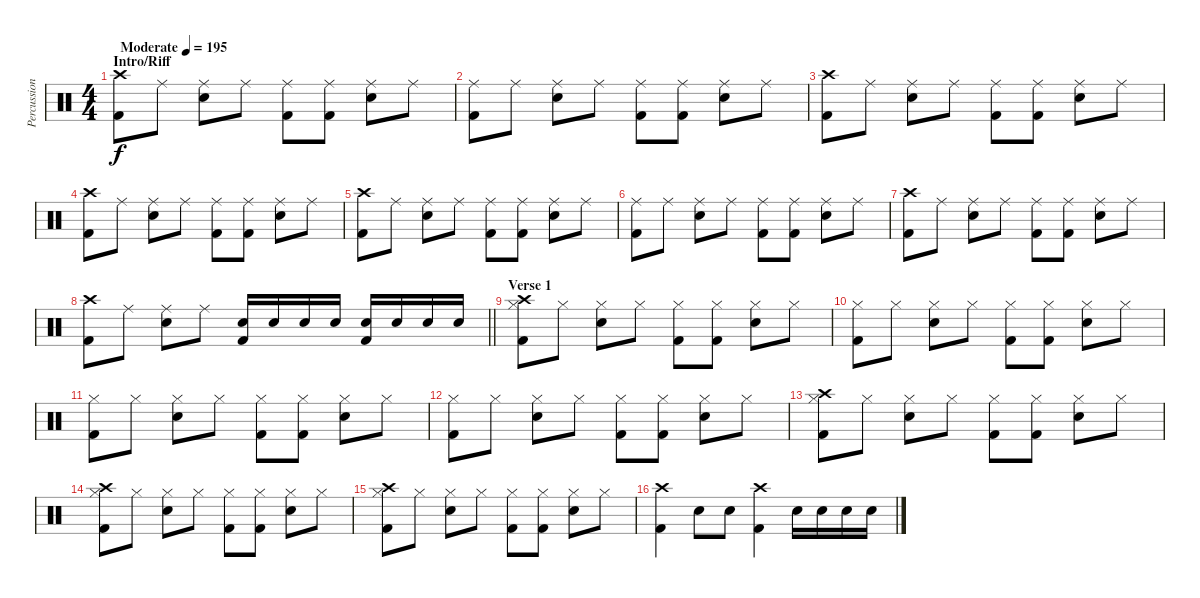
\track ("Percussion" "Percussion") {instrument percussion}
\staff {score}
\articulation defaults
\ts (4 4)
\section ("" "Intro/Riff")
\tempo (195 "Moderate")
\clef neutral
\ks c
("Crash high (hit)" "Kick (hit) 2").8{dy f} "Ride (middle)".8 ("Ride (middle)" "Electric Snare (hit)").8 "Ride (middle)".8 ("Ride (middle)" "Kick (hit) 2").8 ("Ride (middle)" "Kick (hit) 2").8 ("Ride (middle)" "Electric Snare (hit)").8 "Ride (middle)".8 |
("Ride (middle)" "Kick (hit) 2").8 "Ride (middle)".8 ("Ride (middle)" "Electric Snare (hit)").8 "Ride (middle)".8 ("Ride (middle)" "Kick (hit) 2").8 ("Ride (middle)" "Kick (hit) 2").8 ("Ride (middle)" "Electric Snare (hit)").8 "Ride (middle)".8 |
("Crash high (hit)" "Kick (hit) 2").8 "Ride (middle)".8 ("Ride (middle)" "Electric Snare (hit)").8 "Ride (middle)".8 ("Ride (middle)" "Kick (hit) 2").8 ("Ride (middle)" "Kick (hit) 2").8 ("Ride (middle)" "Electric Snare (hit)").8 "Ride (middle)".8 |
("Crash high (hit)" "Kick (hit) 2").8 "Ride (middle)".8 ("Ride (middle)" "Electric Snare (hit)").8 "Ride (middle)".8 ("Ride (middle)" "Kick (hit) 2").8 ("Ride (middle)" "Kick (hit) 2").8 ("Ride (middle)" "Electric Snare (hit)").8 "Ride (middle)".8 |
("Crash high (hit)" "Kick (hit) 2").8 "Ride (middle)".8 ("Ride (middle)" "Electric Snare (hit)").8 "Ride (middle)".8 ("Ride (middle)" "Kick (hit) 2").8 ("Ride (middle)" "Kick (hit) 2").8 ("Ride (middle)" "Electric Snare (hit)").8 "Ride (middle)".8 |
("Ride (middle)" "Kick (hit) 2").8 "Ride (middle)".8 ("Ride (middle)" "Electric Snare (hit)").8 "Ride (middle)".8 ("Ride (middle)" "Kick (hit) 2").8 ("Ride (middle)" "Kick (hit) 2").8 ("Ride (middle)" "Electric Snare (hit)").8 "Ride (middle)".8 |
("Crash high (hit)" "Kick (hit) 2").8 "Ride (middle)".8 ("Ride (middle)" "Electric Snare (hit)").8 "Ride (middle)".8 ("Ride (middle)" "Kick (hit) 2").8 ("Ride (middle)" "Kick (hit) 2").8 ("Ride (middle)" "Electric Snare (hit)").8 "Ride (middle)".8 |
\barLineRight lightlight
("Crash high (hit)" "Kick (hit) 2").8 "Ride (middle)".8 ("Ride (middle)" "Electric Snare (hit)").8 "Ride (middle)".8 ("Electric Snare (hit)" "Kick (hit) 2").16 "Electric Snare (hit)".16 "Electric Snare (hit)".16 "Electric Snare (hit)".16 ("Electric Snare (hit)" "Kick (hit) 2").16 "Electric Snare (hit)".16 "Electric Snare (hit)".16 "Electric Snare (hit)".16 |
\section ("" "Verse 1")
("Crash high (hit)" "Hi-Hat (closed)" "Kick (hit) 2").8 "Hi-Hat (closed)".8 ("Hi-Hat (closed)" "Electric Snare (hit)").8 "Hi-Hat (closed)".8 ("Hi-Hat (closed)" "Kick (hit) 2").8 ("Hi-Hat (closed)" "Kick (hit) 2").8 ("Hi-Hat (closed)" "Electric Snare (hit)").8 "Hi-Hat (closed)".8 |
("Hi-Hat (closed)" "Kick (hit) 2").8 "Hi-Hat (closed)".8 ("Hi-Hat (closed)" "Electric Snare (hit)").8 "Hi-Hat (closed)".8 ("Hi-Hat (closed)" "Kick (hit) 2").8 ("Hi-Hat (closed)" "Kick (hit) 2").8 ("Hi-Hat (closed)" "Electric Snare (hit)").8 "Hi-Hat (closed)".8 |
("Hi-Hat (closed)" "Kick (hit) 2").8 "Hi-Hat (closed)".8 ("Hi-Hat (closed)" "Electric Snare (hit)").8 "Hi-Hat (closed)".8 ("Hi-Hat (closed)" "Kick (hit) 2").8 ("Hi-Hat (closed)" "Kick (hit) 2").8 ("Hi-Hat (closed)" "Electric Snare (hit)").8 "Hi-Hat (closed)".8 |
("Hi-Hat (closed)" "Kick (hit) 2").8 "Hi-Hat (closed)".8 ("Hi-Hat (closed)" "Electric Snare (hit)").8 "Hi-Hat (closed)".8 ("Hi-Hat (closed)" "Kick (hit) 2").8 ("Hi-Hat (closed)" "Kick (hit) 2").8 ("Hi-Hat (closed)" "Electric Snare (hit)").8 "Hi-Hat (closed)".8 |
("Crash high (hit)" "Hi-Hat (closed)" "Kick (hit) 2").8 "Hi-Hat (closed)".8 ("Hi-Hat (closed)" "Electric Snare (hit)").8 "Hi-Hat (closed)".8 ("Hi-Hat (closed)" "Kick (hit) 2").8 ("Hi-Hat (closed)" "Kick (hit) 2").8 ("Hi-Hat (closed)" "Electric Snare (hit)").8 "Hi-Hat (closed)".8 |
("Crash high (hit)" "Hi-Hat (closed)" "Kick (hit) 2").8 "Hi-Hat (closed)".8 ("Hi-Hat (closed)" "Electric Snare (hit)").8 "Hi-Hat (closed)".8 ("Hi-Hat (closed)" "Kick (hit) 2").8 ("Hi-Hat (closed)" "Kick (hit) 2").8 ("Hi-Hat (closed)" "Electric Snare (hit)").8 "Hi-Hat (closed)".8 |
("Crash high (hit)" "Hi-Hat (closed)" "Kick (hit) 2").8 "Hi-Hat (closed)".8 ("Hi-Hat (closed)" "Electric Snare (hit)").8 "Hi-Hat (closed)".8 ("Hi-Hat (closed)" "Kick (hit) 2").8 ("Hi-Hat (closed)" "Kick (hit) 2").8 ("Hi-Hat (closed)" "Electric Snare (hit)").8 "Hi-Hat (closed)".8 |
("Crash high (hit)" "Kick (hit) 2").4 "Electric Snare (hit)".8 "Electric Snare (hit)".8 ("Crash high (hit)" "Kick (hit) 2").4 "Electric Snare (hit)".16 "Electric Snare (hit)".16 "Electric Snare (hit)".16 "Electric Snare (hit)".16
